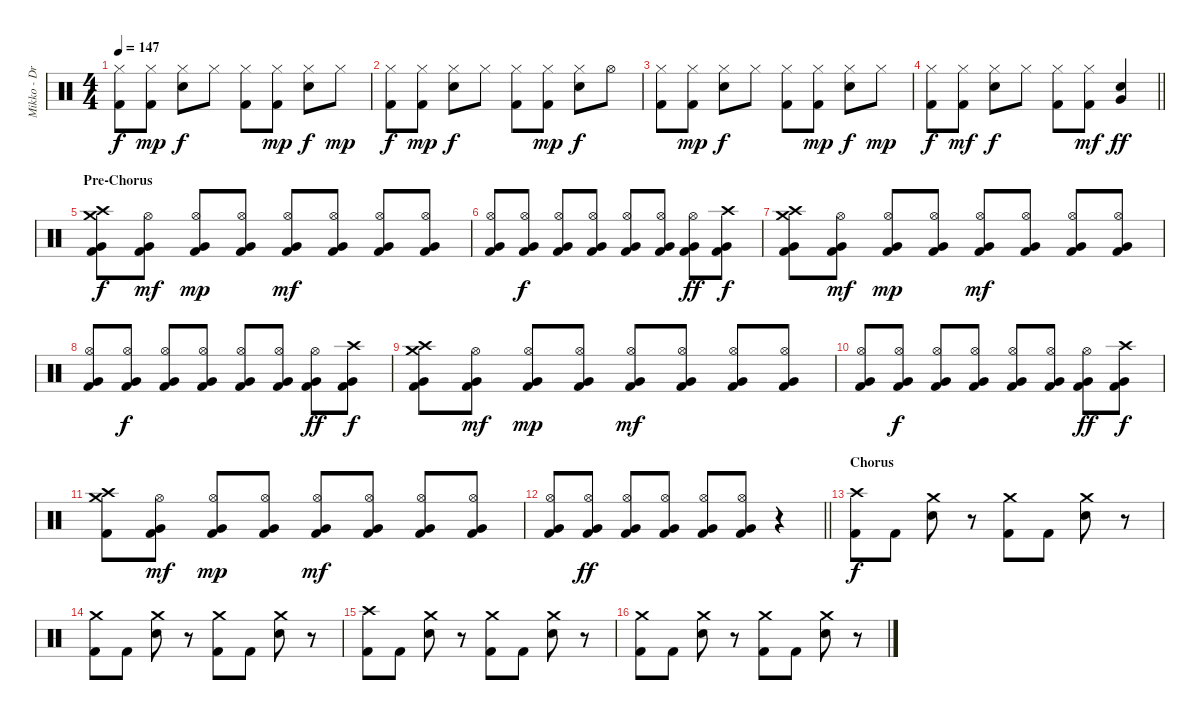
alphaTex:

\track ("Mikko - Drums" "Mikko - Dr") {instrument percussion}
\staff {score}
\articulation defaults
\ts (4 4)
\tempo 147
\clef neutral
\ks c
("Hi-Hat (closed)" "Kick (hit) 2").8{dy f} ("Hi-Hat (closed)" "Kick (hit) 2").8{dy mp} ("Hi-Hat (closed)" "Snare (hit) 2").8{dy f} "Hi-Hat (closed)".8 ("Hi-Hat (closed)" "Kick (hit) 2").8 ("Hi-Hat (closed)" "Kick (hit) 2").8{dy mp} ("Hi-Hat (closed)" "Snare (hit) 2").8{dy f} "Hi-Hat (closed)".8{dy mp} |
("Hi-Hat (closed)" "Kick (hit) 2").8{dy f} ("Hi-Hat (closed)" "Kick (hit) 2").8{dy mp} ("Hi-Hat (closed)" "Snare (hit) 2").8{dy f} "Hi-Hat (closed)".8 ("Hi-Hat (closed)" "Kick (hit) 2").8 ("Hi-Hat (closed)" "Kick (hit) 2").8{dy mp} ("Hi-Hat (closed)" "Snare (hit) 2").8{dy f} "Hi-Hat (open)".8 |
("Hi-Hat (closed)" "Kick (hit) 2").8 ("Hi-Hat (closed)" "Kick (hit) 2").8{dy mp} ("Hi-Hat (closed)" "Snare (hit) 2").8{dy f} "Hi-Hat (closed)".8 ("Hi-Hat (closed)" "Kick (hit) 2").8 ("Hi-Hat (closed)" "Kick (hit) 2").8{dy mp} ("Hi-Hat (closed)" "Snare (hit) 2").8{dy f} "Hi-Hat (closed)".8{dy mp} |
\barLineRight lightlight
("Hi-Hat (closed)" "Kick (hit) 2").8{dy f} ("Hi-Hat (closed)" "Kick (hit) 2").8{dy mf} ("Hi-Hat (closed)" "Snare (hit) 2").8{dy f} "Hi-Hat (closed)".8 ("Hi-Hat (closed)" "Kick (hit) 2").8 ("Hi-Hat (closed)" "Kick (hit) 2").8{dy mf} ("Snare (hit) 2" "Very Low Tom (hit)").4{dy ff} |
\section ("" "Pre-Chorus")
("Crash medium (hit)" "Crash high (hit)" "Very Low Tom (hit)" "Kick (hit) 2").8{dy f} ("Hi-Hat (open)" "Very Low Tom (hit)" "Kick (hit) 2").8{dy mf} ("Hi-Hat (open)" "Very Low Tom (hit)" "Kick (hit) 2").8{dy mp} ("Hi-Hat (open)" "Very Low Tom (hit)" "Kick (hit) 2").8 ("Hi-Hat (open)" "Very Low Tom (hit)" "Kick (hit) 2").8{dy mf} ("Hi-Hat (open)" "Very Low Tom (hit)" "Kick (hit) 2").8 ("Hi-Hat (open)" "Very Low Tom (hit)" "Kick (hit) 2").8 ("Hi-Hat (open)" "Very Low Tom (hit)" "Kick (hit) 2").8 |
("Hi-Hat (open)" "Very Low Tom (hit)" "Kick (hit) 2").8 ("Hi-Hat (open)" "Very Low Tom (hit)" "Kick (hit) 2").8{dy f} ("Hi-Hat (open)" "Very Low Tom (hit)" "Kick (hit) 2").8 ("Hi-Hat (open)" "Very Low Tom (hit)" "Kick (hit) 2").8 ("Hi-Hat (open)" "Very Low Tom (hit)" "Kick (hit) 2").8 ("Hi-Hat (open)" "Very Low Tom (hit)" "Kick (hit) 2").8 ("Hi-Hat (open)" "Very Low Tom (hit)" "Kick (hit) 2").8{dy ff} ("Crash high (hit)" "Very Low Tom (hit)" "Kick (hit) 2").8{dy f} |
("Crash medium (hit)" "Crash high (hit)" "Very Low Tom (hit)" "Kick (hit) 2").8 ("Hi-Hat (open)" "Very Low Tom (hit)" "Kick (hit) 2").8{dy mf} ("Hi-Hat (open)" "Very Low Tom (hit)" "Kick (hit) 2").8{dy mp} ("Hi-Hat (open)" "Very Low Tom (hit)" "Kick (hit) 2").8 ("Hi-Hat (open)" "Very Low Tom (hit)" "Kick (hit) 2").8{dy mf} ("Hi-Hat (open)" "Very Low Tom (hit)" "Kick (hit) 2").8 ("Hi-Hat (open)" "Very Low Tom (hit)" "Kick (hit) 2").8 ("Hi-Hat (open)" "Very Low Tom (hit)" "Kick (hit) 2").8 |
("Hi-Hat (open)" "Very Low Tom (hit)" "Kick (hit) 2").8 ("Hi-Hat (open)" "Very Low Tom (hit)" "Kick (hit) 2").8{dy f} ("Hi-Hat (open)" "Very Low Tom (hit)" "Kick (hit) 2").8 ("Hi-Hat (open)" "Very Low Tom (hit)" "Kick (hit) 2").8 ("Hi-Hat (open)" "Very Low Tom (hit)" "Kick (hit) 2").8 ("Hi-Hat (open)" "Very Low Tom (hit)" "Kick (hit) 2").8 ("Hi-Hat (open)" "Very Low Tom (hit)" "Kick (hit) 2").8{dy ff} ("Crash high (hit)" "Very Low Tom (hit)" "Kick (hit) 2").8{dy f} |
("Crash medium (hit)" "Crash high (hit)" "Very Low Tom (hit)" "Kick (hit) 2").8 ("Hi-Hat (open)" "Very Low Tom (hit)" "Kick (hit) 2").8{dy mf} ("Hi-Hat (open)" "Very Low Tom (hit)" "Kick (hit) 2").8{dy mp} ("Hi-Hat (open)" "Very Low Tom (hit)" "Kick (hit) 2").8 ("Hi-Hat (open)" "Very Low Tom (hit)" "Kick (hit) 2").8{dy mf} ("Hi-Hat (open)" "Very Low Tom (hit)" "Kick (hit) 2").8 ("Hi-Hat (open)" "Very Low Tom (hit)" "Kick (hit) 2").8 ("Hi-Hat (open)" "Very Low Tom (hit)" "Kick (hit) 2").8 |
("Hi-Hat (open)" "Very Low Tom (hit)" "Kick (hit) 2").8 ("Hi-Hat (open)" "Very Low Tom (hit)" "Kick (hit) 2").8{dy f} ("Hi-Hat (open)" "Very Low Tom (hit)" "Kick (hit) 2").8 ("Hi-Hat (open)" "Very Low Tom (hit)" "Kick (hit) 2").8 ("Hi-Hat (open)" "Very Low Tom (hit)" "Kick (hit) 2").8 ("Hi-Hat (open)" "Very Low Tom (hit)" "Kick (hit) 2").8 ("Hi-Hat (open)" "Very Low Tom (hit)" "Kick (hit) 2").8{dy ff} ("Crash high (hit)" "Very Low Tom (hit)" "Kick (hit) 2").8{dy f} |
("Crash medium (hit)" "Crash high (hit)" "Kick (hit) 2").8 ("Hi-Hat (open)" "Very Low Tom (hit)" "Kick (hit) 2").8{dy mf} ("Hi-Hat (open)" "Very Low Tom (hit)" "Kick (hit) 2").8{dy mp} ("Hi-Hat (open)" "Very Low Tom (hit)" "Kick (hit) 2").8 ("Hi-Hat (open)" "Very Low Tom (hit)" "Kick (hit) 2").8{dy mf} ("Hi-Hat (open)" "Very Low Tom (hit)" "Kick (hit) 2").8 ("Hi-Hat (open)" "Very Low Tom (hit)" "Kick (hit) 2").8 ("Hi-Hat (open)" "Very Low Tom (hit)" "Kick (hit) 2").8 |
\barLineRight lightlight
("Hi-Hat (open)" "Very Low Tom (hit)" "Kick (hit) 2").8 ("Hi-Hat (open)" "Very Low Tom (hit)" "Kick (hit) 2").8{dy ff} ("Hi-Hat (open)" "Very Low Tom (hit)" "Kick (hit) 2").8 ("Hi-Hat (open)" "Very Low Tom (hit)" "Kick (hit) 2").8 ("Hi-Hat (open)" "Very Low Tom (hit)" "Kick (hit) 2").8 ("Hi-Hat (open)" "Very Low Tom (hit)" "Kick (hit) 2").8 r.4 |
\section ("" "Chorus")
("Crash high (hit)" "Kick (hit) 2").8{dy f} "Kick (hit) 2".8 ("Crash medium (hit)" "Snare (hit) 2").8 r.8 ("Crash medium (hit)" "Kick (hit) 2").8 "Kick (hit) 2".8 ("Crash medium (hit)" "Snare (hit) 2").8 r.8 |
("Crash medium (hit)" "Kick (hit) 2").8 "Kick (hit) 2".8 ("Crash medium (hit)" "Snare (hit) 2").8 r.8 ("Crash medium (hit)" "Kick (hit) 2").8 "Kick (hit) 2".8 ("Crash medium (hit)" "Snare (hit) 2").8 r.8 |
("Crash high (hit)" "Kick (hit) 2").8 "Kick (hit) 2".8 ("Crash medium (hit)" "Snare (hit) 2").8 r.8 ("Crash medium (hit)" "Kick (hit) 2").8 "Kick (hit) 2".8 ("Crash medium (hit)" "Snare (hit) 2").8 r.8 |
("Crash medium (hit)" "Kick (hit) 2").8 "Kick (hit) 2".8 ("Crash medium (hit)" "Snare (hit) 2").8 r.8 ("Crash medium (hit)" "Kick (hit) 2").8 "Kick (hit) 2".8 ("Crash medium (hit)" "Snare (hit) 2").8 r.8
